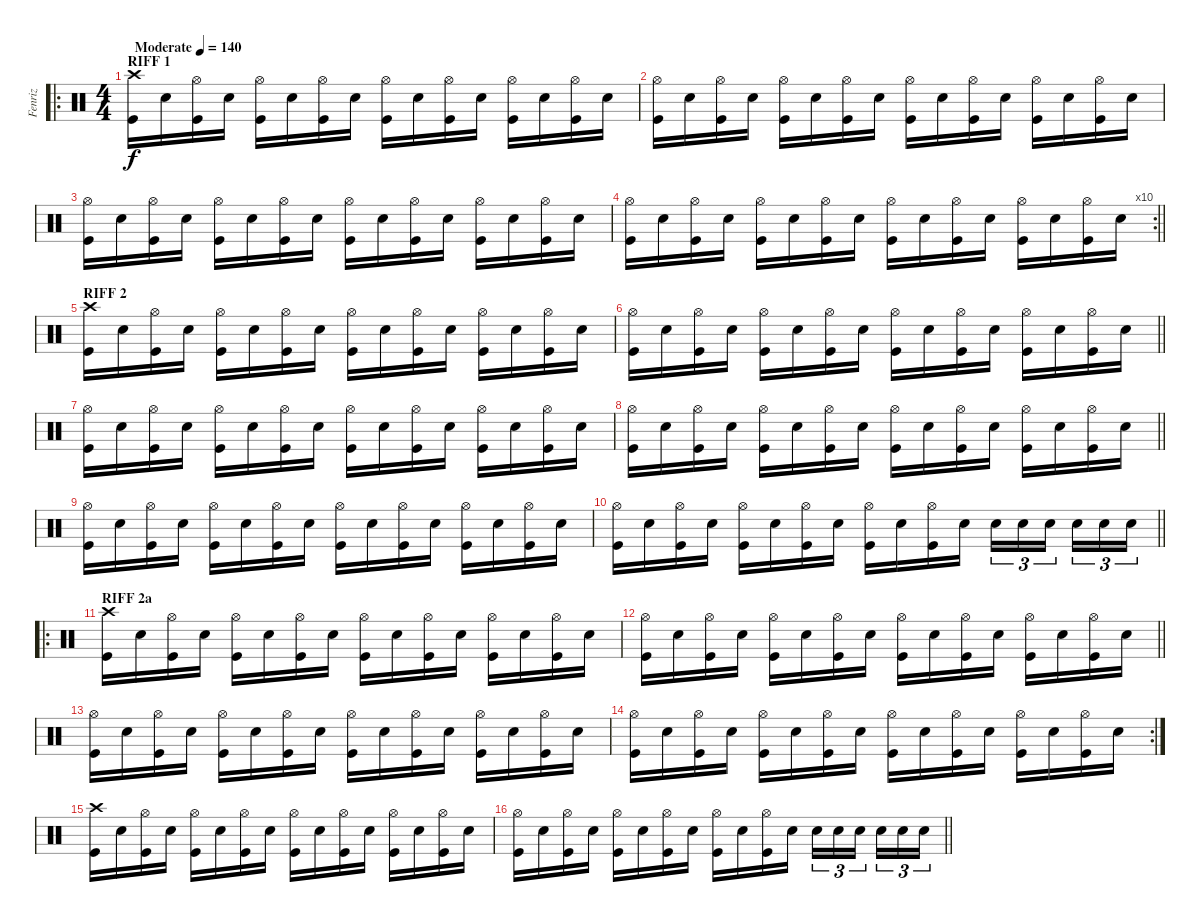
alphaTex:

\track ("Fenriz" "Fenriz") {instrument percussion}
\staff {score}
\articulation defaults
\ro
\ts (4 4)
\section ("" "RIFF 1")
\tempo (140 "Moderate")
\clef neutral
\ks c
("Crash high (hit)" "Kick (hit)").16{dy f} "Snare (hit) 2".16 ("Hi-Hat (open)" "Kick (hit)").16 "Snare (hit) 2".16 ("Hi-Hat (open)" "Kick (hit)").16 "Snare (hit) 2".16 ("Hi-Hat (open)" "Kick (hit)").16 "Snare (hit) 2".16 ("Hi-Hat (open)" "Kick (hit)").16 "Snare (hit) 2".16 ("Hi-Hat (open)" "Kick (hit)").16 "Snare (hit) 2".16 ("Hi-Hat (open)" "Kick (hit)").16 "Snare (hit) 2".16 ("Hi-Hat (open)" "Kick (hit)").16 "Snare (hit) 2".16 |
("Hi-Hat (open)" "Kick (hit)").16 "Snare (hit) 2".16 ("Hi-Hat (open)" "Kick (hit)").16 "Snare (hit) 2".16 ("Hi-Hat (open)" "Kick (hit)").16 "Snare (hit) 2".16 ("Hi-Hat (open)" "Kick (hit)").16 "Snare (hit) 2".16 ("Hi-Hat (open)" "Kick (hit)").16 "Snare (hit) 2".16 ("Hi-Hat (open)" "Kick (hit)").16 "Snare (hit) 2".16 ("Hi-Hat (open)" "Kick (hit)").16 "Snare (hit) 2".16 ("Hi-Hat (open)" "Kick (hit)").16 "Snare (hit) 2".16 |
("Hi-Hat (open)" "Kick (hit)").16 "Snare (hit) 2".16 ("Hi-Hat (open)" "Kick (hit)").16 "Snare (hit) 2".16 ("Hi-Hat (open)" "Kick (hit)").16 "Snare (hit) 2".16 ("Hi-Hat (open)" "Kick (hit)").16 "Snare (hit) 2".16 ("Hi-Hat (open)" "Kick (hit)").16 "Snare (hit) 2".16 ("Hi-Hat (open)" "Kick (hit)").16 "Snare (hit) 2".16 ("Hi-Hat (open)" "Kick (hit)").16 "Snare (hit) 2".16 ("Hi-Hat (open)" "Kick (hit)").16 "Snare (hit) 2".16 |
\rc 10
\barLineRight lightlight
("Hi-Hat (open)" "Kick (hit)").16 "Snare (hit) 2".16 ("Hi-Hat (open)" "Kick (hit)").16 "Snare (hit) 2".16 ("Hi-Hat (open)" "Kick (hit)").16 "Snare (hit) 2".16 ("Hi-Hat (open)" "Kick (hit)").16 "Snare (hit) 2".16 ("Hi-Hat (open)" "Kick (hit)").16 "Snare (hit) 2".16 ("Hi-Hat (open)" "Kick (hit)").16 "Snare (hit) 2".16 ("Hi-Hat (open)" "Kick (hit)").16 "Snare (hit) 2".16 ("Hi-Hat (open)" "Kick (hit)").16 "Snare (hit) 2".16 |
\section ("" "RIFF 2")
("Crash high (hit)" "Kick (hit)").16 "Snare (hit) 2".16 ("Hi-Hat (open)" "Kick (hit)").16 "Snare (hit) 2".16 ("Hi-Hat (open)" "Kick (hit)").16 "Snare (hit) 2".16 ("Hi-Hat (open)" "Kick (hit)").16 "Snare (hit) 2".16 ("Hi-Hat (open)" "Kick (hit)").16 "Snare (hit) 2".16 ("Hi-Hat (open)" "Kick (hit)").16 "Snare (hit) 2".16 ("Hi-Hat (open)" "Kick (hit)").16 "Snare (hit) 2".16 ("Hi-Hat (open)" "Kick (hit)").16 "Snare (hit) 2".16 |
\barLineRight lightlight
("Hi-Hat (open)" "Kick (hit)").16 "Snare (hit) 2".16 ("Hi-Hat (open)" "Kick (hit)").16 "Snare (hit) 2".16 ("Hi-Hat (open)" "Kick (hit)").16 "Snare (hit) 2".16 ("Hi-Hat (open)" "Kick (hit)").16 "Snare (hit) 2".16 ("Hi-Hat (open)" "Kick (hit)").16 "Snare (hit) 2".16 ("Hi-Hat (open)" "Kick (hit)").16 "Snare (hit) 2".16 ("Hi-Hat (open)" "Kick (hit)").16 "Snare (hit) 2".16 ("Hi-Hat (open)" "Kick (hit)").16 "Snare (hit) 2".16 |
("Hi-Hat (open)" "Kick (hit)").16 "Snare (hit) 2".16 ("Hi-Hat (open)" "Kick (hit)").16 "Snare (hit) 2".16 ("Hi-Hat (open)" "Kick (hit)").16 "Snare (hit) 2".16 ("Hi-Hat (open)" "Kick (hit)").16 "Snare (hit) 2".16 ("Hi-Hat (open)" "Kick (hit)").16 "Snare (hit) 2".16 ("Hi-Hat (open)" "Kick (hit)").16 "Snare (hit) 2".16 ("Hi-Hat (open)" "Kick (hit)").16 "Snare (hit) 2".16 ("Hi-Hat (open)" "Kick (hit)").16 "Snare (hit) 2".16 |
\barLineRight lightlight
("Hi-Hat (open)" "Kick (hit)").16 "Snare (hit) 2".16 ("Hi-Hat (open)" "Kick (hit)").16 "Snare (hit) 2".16 ("Hi-Hat (open)" "Kick (hit)").16 "Snare (hit) 2".16 ("Hi-Hat (open)" "Kick (hit)").16 "Snare (hit) 2".16 ("Hi-Hat (open)" "Kick (hit)").16 "Snare (hit) 2".16 ("Hi-Hat (open)" "Kick (hit)").16 "Snare (hit) 2".16 ("Hi-Hat (open)" "Kick (hit)").16 "Snare (hit) 2".16 ("Hi-Hat (open)" "Kick (hit)").16 "Snare (hit) 2".16 |
("Hi-Hat (open)" "Kick (hit)").16 "Snare (hit) 2".16 ("Hi-Hat (open)" "Kick (hit)").16 "Snare (hit) 2".16 ("Hi-Hat (open)" "Kick (hit)").16 "Snare (hit) 2".16 ("Hi-Hat (open)" "Kick (hit)").16 "Snare (hit) 2".16 ("Hi-Hat (open)" "Kick (hit)").16 "Snare (hit) 2".16 ("Hi-Hat (open)" "Kick (hit)").16 "Snare (hit) 2".16 ("Hi-Hat (open)" "Kick (hit)").16 "Snare (hit) 2".16 ("Hi-Hat (open)" "Kick (hit)").16 "Snare (hit) 2".16 |
\barLineRight lightlight
("Hi-Hat (open)" "Kick (hit)").16 "Snare (hit) 2".16 ("Hi-Hat (open)" "Kick (hit)").16 "Snare (hit) 2".16 ("Hi-Hat (open)" "Kick (hit)").16 "Snare (hit) 2".16 ("Hi-Hat (open)" "Kick (hit)").16 "Snare (hit) 2".16 ("Hi-Hat (open)" "Kick (hit)").16 "Snare (hit) 2".16 ("Hi-Hat (open)" "Kick (hit)").16 "Snare (hit) 2".16 "Snare (hit) 2".16{tu (3 2)} "Snare (hit) 2".16{tu (3 2)} "Snare (hit) 2".16{tu (3 2) beam splitsecondary} "Snare (hit) 2".16{tu (3 2)} "Snare (hit) 2".16{tu (3 2)} "Snare (hit) 2".16{tu (3 2)} |
\ro
\section ("" "RIFF 2a")
("Crash high (hit)" "Kick (hit)").16 "Snare (hit) 2".16 ("Hi-Hat (open)" "Kick (hit)").16 "Snare (hit) 2".16 ("Hi-Hat (open)" "Kick (hit)").16 "Snare (hit) 2".16 ("Hi-Hat (open)" "Kick (hit)").16 "Snare (hit) 2".16 ("Hi-Hat (open)" "Kick (hit)").16 "Snare (hit) 2".16 ("Hi-Hat (open)" "Kick (hit)").16 "Snare (hit) 2".16 ("Hi-Hat (open)" "Kick (hit)").16 "Snare (hit) 2".16 ("Hi-Hat (open)" "Kick (hit)").16 "Snare (hit) 2".16 |
\barLineRight lightlight
("Hi-Hat (open)" "Kick (hit)").16 "Snare (hit) 2".16 ("Hi-Hat (open)" "Kick (hit)").16 "Snare (hit) 2".16 ("Hi-Hat (open)" "Kick (hit)").16 "Snare (hit) 2".16 ("Hi-Hat (open)" "Kick (hit)").16 "Snare (hit) 2".16 ("Hi-Hat (open)" "Kick (hit)").16 "Snare (hit) 2".16 ("Hi-Hat (open)" "Kick (hit)").16 "Snare (hit) 2".16 ("Hi-Hat (open)" "Kick (hit)").16 "Snare (hit) 2".16 ("Hi-Hat (open)" "Kick (hit)").16 "Snare (hit) 2".16 |
("Hi-Hat (open)" "Kick (hit)").16 "Snare (hit) 2".16 ("Hi-Hat (open)" "Kick (hit)").16 "Snare (hit) 2".16 ("Hi-Hat (open)" "Kick (hit)").16 "Snare (hit) 2".16 ("Hi-Hat (open)" "Kick (hit)").16 "Snare (hit) 2".16 ("Hi-Hat (open)" "Kick (hit)").16 "Snare (hit) 2".16 ("Hi-Hat (open)" "Kick (hit)").16 "Snare (hit) 2".16 ("Hi-Hat (open)" "Kick (hit)").16 "Snare (hit) 2".16 ("Hi-Hat (open)" "Kick (hit)").16 "Snare (hit) 2".16 |
\rc 2
("Hi-Hat (open)" "Kick (hit)").16 "Snare (hit) 2".16 ("Hi-Hat (open)" "Kick (hit)").16 "Snare (hit) 2".16 ("Hi-Hat (open)" "Kick (hit)").16 "Snare (hit) 2".16 ("Hi-Hat (open)" "Kick (hit)").16 "Snare (hit) 2".16 ("Hi-Hat (open)" "Kick (hit)").16 "Snare (hit) 2".16 ("Hi-Hat (open)" "Kick (hit)").16 "Snare (hit) 2".16 ("Hi-Hat (open)" "Kick (hit)").16 "Snare (hit) 2".16 ("Hi-Hat (open)" "Kick (hit)").16 "Snare (hit) 2".16 |
("Crash high (hit)" "Kick (hit)").16 "Snare (hit) 2".16 ("Hi-Hat (open)" "Kick (hit)").16 "Snare (hit) 2".16 ("Hi-Hat (open)" "Kick (hit)").16 "Snare (hit) 2".16 ("Hi-Hat (open)" "Kick (hit)").16 "Snare (hit) 2".16 ("Hi-Hat (open)" "Kick (hit)").16 "Snare (hit) 2".16 ("Hi-Hat (open)" "Kick (hit)").16 "Snare (hit) 2".16 ("Hi-Hat (open)" "Kick (hit)").16 "Snare (hit) 2".16 ("Hi-Hat (open)" "Kick (hit)").16 "Snare (hit) 2".16 |
\barLineRight lightlight
("Hi-Hat (open)" "Kick (hit)").16 "Snare (hit) 2".16 ("Hi-Hat (open)" "Kick (hit)").16 "Snare (hit) 2".16 ("Hi-Hat (open)" "Kick (hit)").16 "Snare (hit) 2".16 ("Hi-Hat (open)" "Kick (hit)").16 "Snare (hit) 2".16 ("Hi-Hat (open)" "Kick (hit)").16 "Snare (hit) 2".16 ("Hi-Hat (open)" "Kick (hit)").16 "Snare (hit) 2".16 "Snare (hit) 2".16{tu (3 2)} "Snare (hit) 2".16{tu (3 2)} "Snare (hit) 2".16{tu (3 2) beam splitsecondary} "Snare (hit) 2".16{tu (3 2)} "Snare (hit) 2".16{tu (3 2)} "Snare (hit) 2".16{tu (3 2)}
